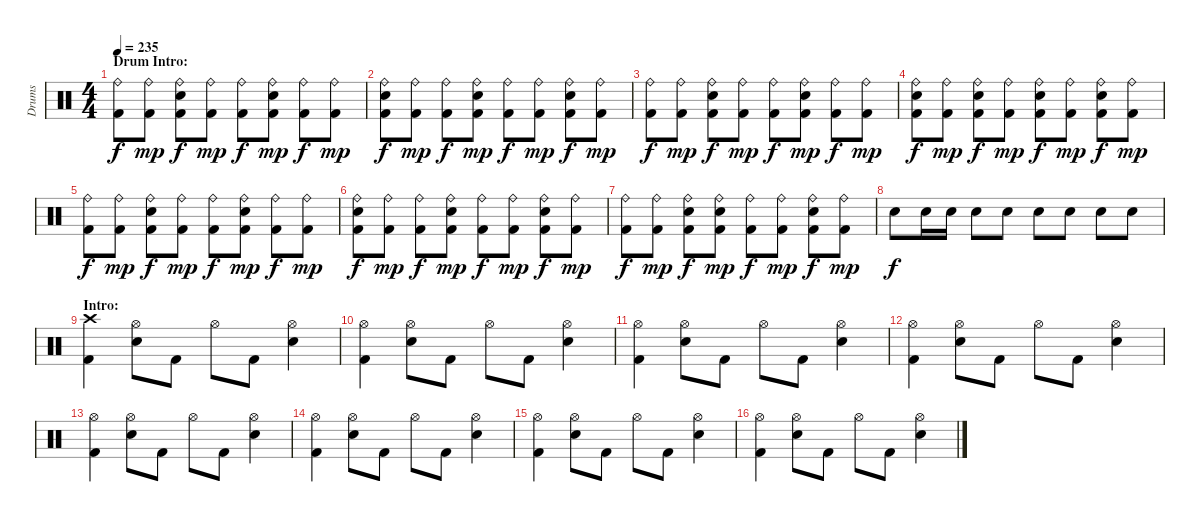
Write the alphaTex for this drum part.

\track ("Drums" "Drums") {instrument percussion}
\staff {score}
\articulation defaults
\ts (4 4)
\section ("" "Drum Intro:")
\tempo 235
\clef neutral
\ks c
("Ride (bell)" "Kick (hit) 2").8{dy f} ("Ride (bell)" "Kick (hit) 2").8{dy mp} ("Ride (bell)" "Snare (hit) 2" "Kick (hit) 2").8{dy f} ("Ride (bell)" "Kick (hit) 2").8{dy mp} ("Ride (bell)" "Kick (hit) 2").8{dy f} ("Ride (bell)" "Snare (hit) 2" "Kick (hit) 2").8{dy mp} ("Ride (bell)" "Kick (hit) 2").8{dy f} ("Ride (bell)" "Kick (hit) 2").8{dy mp} |
("Ride (bell)" "Snare (hit) 2" "Kick (hit) 2").8{dy f} ("Ride (bell)" "Kick (hit) 2").8{dy mp} ("Ride (bell)" "Kick (hit) 2").8{dy f} ("Ride (bell)" "Snare (hit) 2" "Kick (hit) 2").8{dy mp} ("Ride (bell)" "Kick (hit) 2").8{dy f} ("Ride (bell)" "Kick (hit) 2").8{dy mp} ("Ride (bell)" "Snare (hit) 2" "Kick (hit) 2").8{dy f} ("Ride (bell)" "Kick (hit) 2").8{dy mp} |
("Ride (bell)" "Kick (hit) 2").8{dy f} ("Ride (bell)" "Kick (hit) 2").8{dy mp} ("Ride (bell)" "Snare (hit) 2" "Kick (hit) 2").8{dy f} ("Ride (bell)" "Kick (hit) 2").8{dy mp} ("Ride (bell)" "Kick (hit) 2").8{dy f} ("Ride (bell)" "Snare (hit) 2" "Kick (hit) 2").8{dy mp} ("Ride (bell)" "Kick (hit) 2").8{dy f} ("Ride (bell)" "Kick (hit) 2").8{dy mp} |
("Ride (bell)" "Snare (hit) 2" "Kick (hit) 2").8{dy f} ("Ride (bell)" "Kick (hit) 2").8{dy mp} ("Ride (bell)" "Snare (hit) 2" "Kick (hit) 2").8{dy f} ("Ride (bell)" "Kick (hit) 2").8{dy mp} ("Ride (bell)" "Snare (hit) 2" "Kick (hit) 2").8{dy f} ("Ride (bell)" "Kick (hit) 2").8{dy mp} ("Ride (bell)" "Snare (hit) 2" "Kick (hit) 2").8{dy f} ("Ride (bell)" "Kick (hit) 2").8{dy mp} |
("Ride (bell)" "Kick (hit) 2").8{dy f} ("Ride (bell)" "Kick (hit) 2").8{dy mp} ("Ride (bell)" "Snare (hit) 2" "Kick (hit) 2").8{dy f} ("Ride (bell)" "Kick (hit) 2").8{dy mp} ("Ride (bell)" "Kick (hit) 2").8{dy f} ("Ride (bell)" "Snare (hit) 2" "Kick (hit) 2").8{dy mp} ("Ride (bell)" "Kick (hit) 2").8{dy f} ("Ride (bell)" "Kick (hit) 2").8{dy mp} |
("Ride (bell)" "Snare (hit) 2" "Kick (hit) 2").8{dy f} ("Ride (bell)" "Kick (hit) 2").8{dy mp} ("Ride (bell)" "Kick (hit) 2").8{dy f} ("Ride (bell)" "Snare (hit) 2" "Kick (hit) 2").8{dy mp} ("Ride (bell)" "Kick (hit) 2").8{dy f} ("Ride (bell)" "Kick (hit) 2").8{dy mp} ("Ride (bell)" "Snare (hit) 2" "Kick (hit) 2").8{dy f} ("Ride (bell)" "Kick (hit) 2").8{dy mp} |
("Ride (bell)" "Kick (hit) 2").8{dy f} ("Ride (bell)" "Kick (hit) 2").8{dy mp} ("Ride (bell)" "Snare (hit) 2" "Kick (hit) 2").8{dy f} ("Ride (bell)" "Snare (hit) 2" "Kick (hit) 2").8{dy mp} ("Ride (bell)" "Kick (hit) 2").8{dy f} ("Ride (bell)" "Kick (hit) 2").8{dy mp} ("Ride (bell)" "Snare (hit) 2" "Kick (hit) 2").8{dy f} ("Ride (bell)" "Kick (hit) 2").8{dy mp} |
"Snare (hit) 2".8{dy f} "Snare (hit) 2".16 "Snare (hit) 2".16 "Snare (hit) 2".8 "Snare (hit) 2".8 "Snare (hit) 2".8 "Snare (hit) 2".8 "Snare (hit) 2".8 "Snare (hit) 2".8 |
\section ("" "Intro:")
("Crash high (hit)" "Kick (hit) 2").4 ("Hi-Hat (open)" "Snare (hit) 2").8 "Kick (hit) 2".8 "Hi-Hat (open)".8 "Kick (hit) 2".8 ("Hi-Hat (open)" "Snare (hit) 2").4 |
("Hi-Hat (open)" "Kick (hit) 2").4 ("Hi-Hat (open)" "Snare (hit) 2").8 "Kick (hit) 2".8 "Hi-Hat (open)".8 "Kick (hit) 2".8 ("Hi-Hat (open)" "Snare (hit) 2").4 |
("Hi-Hat (open)" "Kick (hit) 2").4 ("Hi-Hat (open)" "Snare (hit) 2").8 "Kick (hit) 2".8 "Hi-Hat (open)".8 "Kick (hit) 2".8 ("Hi-Hat (open)" "Snare (hit) 2").4 |
("Hi-Hat (open)" "Kick (hit) 2").4 ("Hi-Hat (open)" "Snare (hit) 2").8 "Kick (hit) 2".8 "Hi-Hat (open)".8 "Kick (hit) 2".8 ("Hi-Hat (open)" "Snare (hit) 2").4 |
("Hi-Hat (open)" "Kick (hit) 2").4 ("Hi-Hat (open)" "Snare (hit) 2").8 "Kick (hit) 2".8 "Hi-Hat (open)".8 "Kick (hit) 2".8 ("Hi-Hat (open)" "Snare (hit) 2").4 |
("Hi-Hat (open)" "Kick (hit) 2").4 ("Hi-Hat (open)" "Snare (hit) 2").8 "Kick (hit) 2".8 "Hi-Hat (open)".8 "Kick (hit) 2".8 ("Hi-Hat (open)" "Snare (hit) 2").4 |
("Hi-Hat (open)" "Kick (hit) 2").4 ("Hi-Hat (open)" "Snare (hit) 2").8 "Kick (hit) 2".8 "Hi-Hat (open)".8 "Kick (hit) 2".8 ("Hi-Hat (open)" "Snare (hit) 2").4 |
("Hi-Hat (open)" "Kick (hit) 2").4 ("Hi-Hat (open)" "Snare (hit) 2").8 "Kick (hit) 2".8 "Hi-Hat (open)".8 "Kick (hit) 2".8 ("Hi-Hat (open)" "Snare (hit) 2").4
